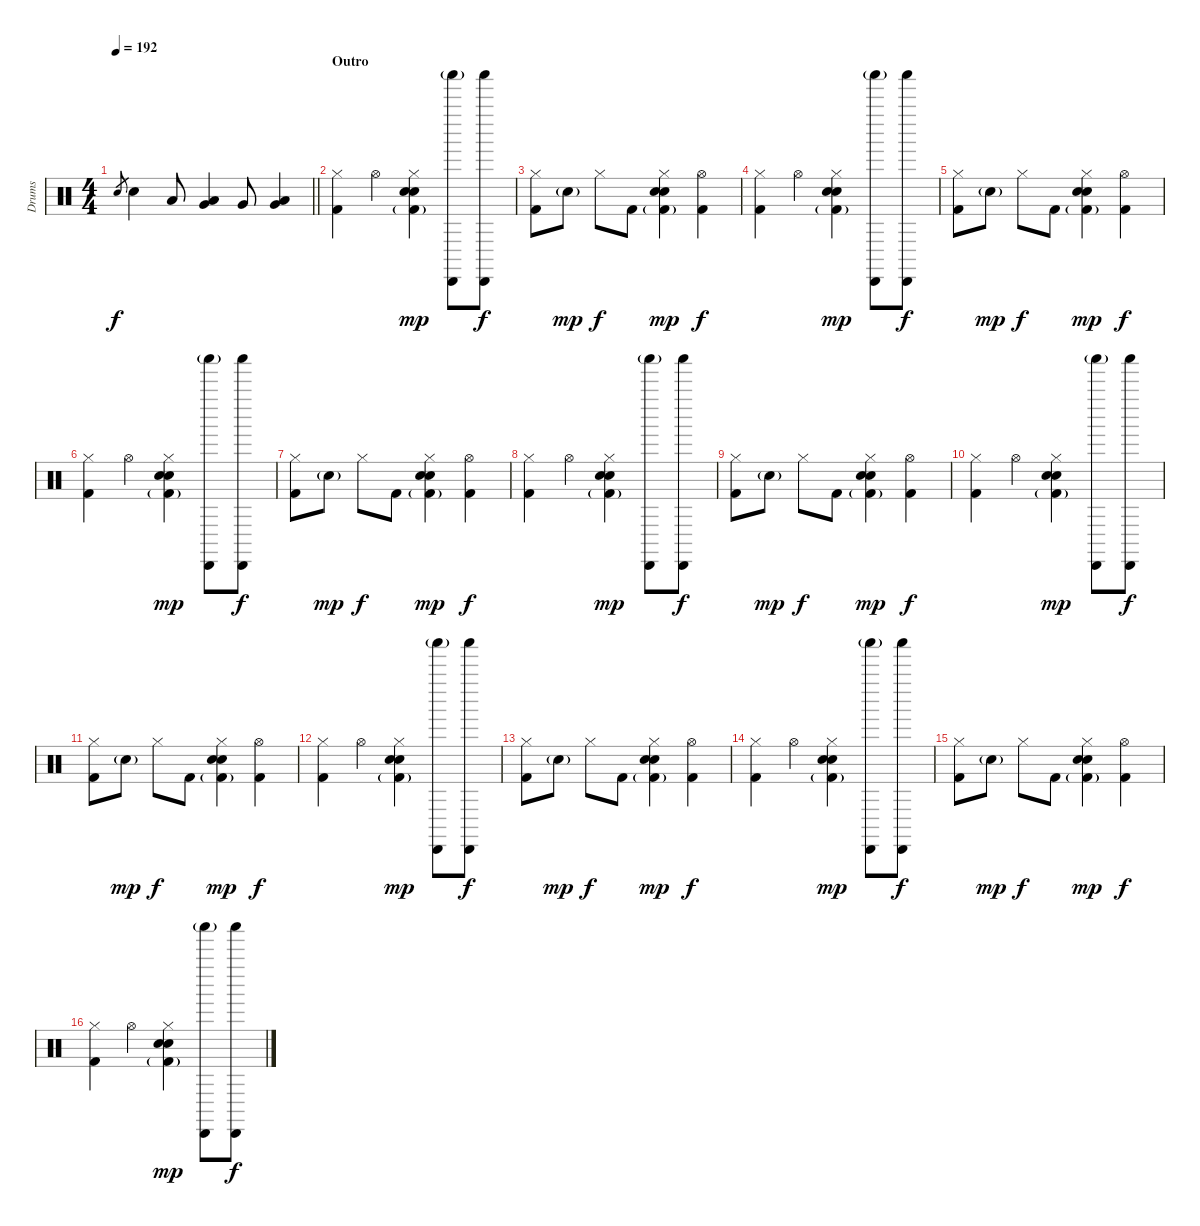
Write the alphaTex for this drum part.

\track ("Drums" "Drums") {instrument percussion}
\staff {score}
\articulation defaults
\ts (4 4)
\tempo 192
\clef neutral
\barLineRight lightlight
\ks c "Electric Snare (hit)".8{gr dy f} "Electric Snare (hit)".4{volume 11 balance 8} "Low Tom (hit)".8
("Low Tom (hit)" "Very Low Tom (hit)").4 "Very Low Tom (hit)".8 ("Low Floor Tom (hit)" "Very Low Tom (hit)").4 |
\section ("" "Outro")
("Hi-Hat (closed)" "Kick (hit) 2").4 "Hi-Hat (open)".4 ("Hi-Hat (closed)" "Hand Clap (hit)" "Electric Snare (hit)" "Kick (hit) 2"{g}).4{dy mp} ("Shaker (hit)"{g} "Cabasa (hit)").8 ("Shaker (hit)" "Cabasa (hit)").8{dy f} |
("Hi-Hat (closed)" "Kick (hit) 2").8 "Electric Snare (hit)"{g}.8{dy mp} "Hi-Hat (closed)".8{dy f} "Kick (hit) 2".8 ("Hi-Hat (closed)" "Hand Clap (hit)" "Electric Snare (hit)" "Kick (hit) 2"{g}).4{dy mp} ("Hi-Hat (open)" "Kick (hit) 2").4{dy f} |
("Hi-Hat (closed)" "Kick (hit) 2").4 "Hi-Hat (open)".4 ("Hi-Hat (closed)" "Hand Clap (hit)" "Electric Snare (hit)" "Kick (hit) 2"{g}).4{dy mp} ("Shaker (hit)"{g} "Cabasa (hit)").8 ("Shaker (hit)" "Cabasa (hit)").8{dy f} |
("Hi-Hat (closed)" "Kick (hit) 2").8 "Electric Snare (hit)"{g}.8{dy mp} "Hi-Hat (closed)".8{dy f} "Kick (hit) 2".8 ("Hi-Hat (closed)" "Hand Clap (hit)" "Electric Snare (hit)" "Kick (hit) 2"{g}).4{dy mp} ("Hi-Hat (open)" "Kick (hit) 2").4{dy f} |
("Hi-Hat (closed)" "Kick (hit) 2").4 "Hi-Hat (open)".4 ("Hi-Hat (closed)" "Hand Clap (hit)" "Electric Snare (hit)" "Kick (hit) 2"{g}).4{dy mp} ("Shaker (hit)"{g} "Cabasa (hit)").8 ("Shaker (hit)" "Cabasa (hit)").8{dy f} |
("Hi-Hat (closed)" "Kick (hit) 2").8 "Electric Snare (hit)"{g}.8{dy mp} "Hi-Hat (closed)".8{dy f} "Kick (hit) 2".8 ("Hi-Hat (closed)" "Hand Clap (hit)" "Electric Snare (hit)" "Kick (hit) 2"{g}).4{dy mp} ("Hi-Hat (open)" "Kick (hit) 2").4{dy f} |
("Hi-Hat (closed)" "Kick (hit) 2").4 "Hi-Hat (open)".4 ("Hi-Hat (closed)" "Hand Clap (hit)" "Electric Snare (hit)" "Kick (hit) 2"{g}).4{dy mp} ("Shaker (hit)"{g} "Cabasa (hit)").8 ("Shaker (hit)" "Cabasa (hit)").8{dy f} |
("Hi-Hat (closed)" "Kick (hit) 2").8 "Electric Snare (hit)"{g}.8{dy mp} "Hi-Hat (closed)".8{dy f} "Kick (hit) 2".8 ("Hi-Hat (closed)" "Hand Clap (hit)" "Electric Snare (hit)" "Kick (hit) 2"{g}).4{dy mp} ("Hi-Hat (open)" "Kick (hit) 2").4{dy f} |
("Hi-Hat (closed)" "Kick (hit) 2").4 "Hi-Hat (open)".4 ("Hi-Hat (closed)" "Hand Clap (hit)" "Electric Snare (hit)" "Kick (hit) 2"{g}).4{dy mp} ("Shaker (hit)"{g} "Cabasa (hit)").8 ("Shaker (hit)" "Cabasa (hit)").8{dy f} |
("Hi-Hat (closed)" "Kick (hit) 2").8 "Electric Snare (hit)"{g}.8{dy mp} "Hi-Hat (closed)".8{dy f} "Kick (hit) 2".8 ("Hi-Hat (closed)" "Hand Clap (hit)" "Electric Snare (hit)" "Kick (hit) 2"{g}).4{dy mp} ("Hi-Hat (open)" "Kick (hit) 2").4{dy f} |
("Hi-Hat (closed)" "Kick (hit) 2").4 "Hi-Hat (open)".4 ("Hi-Hat (closed)" "Hand Clap (hit)" "Electric Snare (hit)" "Kick (hit) 2"{g}).4{dy mp} ("Shaker (hit)"{g} "Cabasa (hit)").8 ("Shaker (hit)" "Cabasa (hit)").8{dy f} |
("Hi-Hat (closed)" "Kick (hit) 2").8 "Electric Snare (hit)"{g}.8{dy mp} "Hi-Hat (closed)".8{dy f} "Kick (hit) 2".8 ("Hi-Hat (closed)" "Hand Clap (hit)" "Electric Snare (hit)" "Kick (hit) 2"{g}).4{dy mp} ("Hi-Hat (open)" "Kick (hit) 2").4{dy f} |
("Hi-Hat (closed)" "Kick (hit) 2").4 "Hi-Hat (open)".4 ("Hi-Hat (closed)" "Hand Clap (hit)" "Electric Snare (hit)" "Kick (hit) 2"{g}).4{dy mp} ("Shaker (hit)"{g} "Cabasa (hit)").8 ("Shaker (hit)" "Cabasa (hit)").8{dy f} |
("Hi-Hat (closed)" "Kick (hit) 2").8 "Electric Snare (hit)"{g}.8{dy mp} "Hi-Hat (closed)".8{dy f} "Kick (hit) 2".8 ("Hi-Hat (closed)" "Hand Clap (hit)" "Electric Snare (hit)" "Kick (hit) 2"{g}).4{dy mp} ("Hi-Hat (open)" "Kick (hit) 2").4{dy f} |
("Hi-Hat (closed)" "Kick (hit) 2").4 "Hi-Hat (open)".4 ("Hi-Hat (closed)" "Hand Clap (hit)" "Electric Snare (hit)" "Kick (hit) 2"{g}).4{dy mp} ("Shaker (hit)"{g} "Cabasa (hit)").8 ("Shaker (hit)" "Cabasa (hit)").8{dy f}
